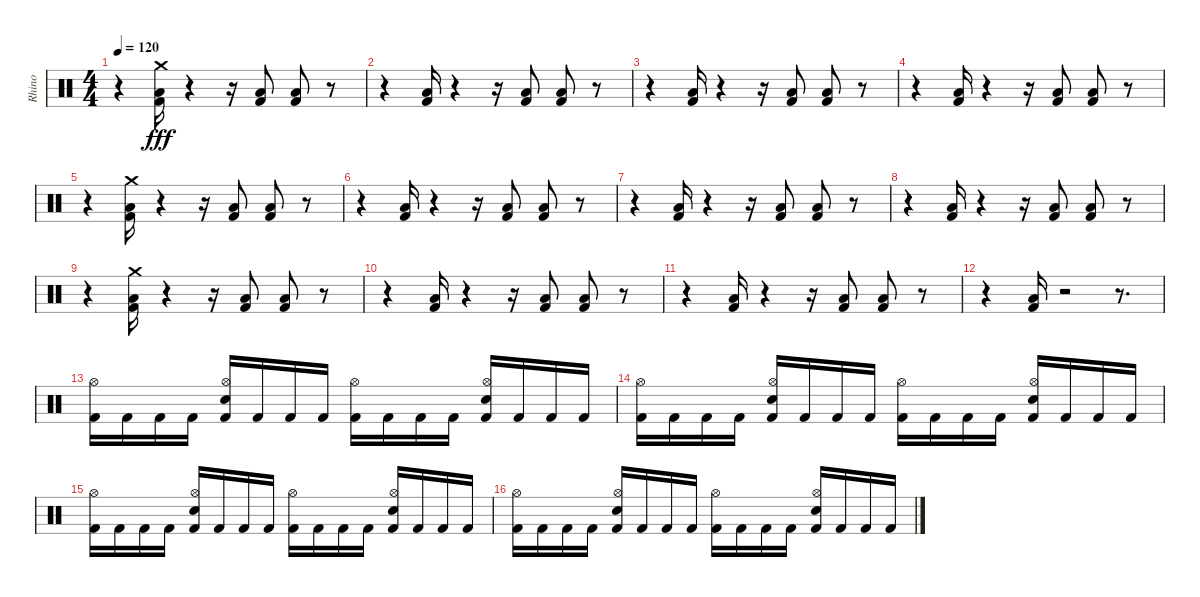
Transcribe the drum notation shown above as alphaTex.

\track ("Rhino" "Rhino") {instrument percussion}
\staff {score}
\articulation defaults
\ts (4 4)
\tempo 120
\clef neutral
\ks c
r.4{dy fff} ("Crash medium (hit)" "Low Floor Tom (hit)" "Kick (hit) 2").16 r.4 r.16 ("Low Floor Tom (hit)" "Kick (hit) 2").8 ("Low Floor Tom (hit)" "Kick (hit) 2").8 r.8 |
r.4 ("Low Floor Tom (hit)" "Kick (hit) 2").16 r.4 r.16 ("Low Floor Tom (hit)" "Kick (hit) 2").8 ("Low Floor Tom (hit)" "Kick (hit) 2").8 r.8 |
r.4 ("Low Floor Tom (hit)" "Kick (hit) 2").16 r.4 r.16 ("Low Floor Tom (hit)" "Kick (hit) 2").8 ("Low Floor Tom (hit)" "Kick (hit) 2").8 r.8 |
r.4 ("Low Floor Tom (hit)" "Kick (hit) 2").16 r.4 r.16 ("Low Floor Tom (hit)" "Kick (hit) 2").8 ("Low Floor Tom (hit)" "Kick (hit) 2").8 r.8 |
r.4 ("Crash medium (hit)" "Low Floor Tom (hit)" "Kick (hit) 2").16 r.4 r.16 ("Low Floor Tom (hit)" "Kick (hit) 2").8 ("Low Floor Tom (hit)" "Kick (hit) 2").8 r.8 |
r.4 ("Low Floor Tom (hit)" "Kick (hit) 2").16 r.4 r.16 ("Low Floor Tom (hit)" "Kick (hit) 2").8 ("Low Floor Tom (hit)" "Kick (hit) 2").8 r.8 |
r.4 ("Low Floor Tom (hit)" "Kick (hit) 2").16 r.4 r.16 ("Low Floor Tom (hit)" "Kick (hit) 2").8 ("Low Floor Tom (hit)" "Kick (hit) 2").8 r.8 |
r.4 ("Low Floor Tom (hit)" "Kick (hit) 2").16 r.4 r.16 ("Low Floor Tom (hit)" "Kick (hit) 2").8 ("Low Floor Tom (hit)" "Kick (hit) 2").8 r.8 |
r.4 ("Crash medium (hit)" "Low Floor Tom (hit)" "Kick (hit) 2").16 r.4 r.16 ("Low Floor Tom (hit)" "Kick (hit) 2").8 ("Low Floor Tom (hit)" "Kick (hit) 2").8 r.8 |
r.4 ("Low Floor Tom (hit)" "Kick (hit) 2").16 r.4 r.16 ("Low Floor Tom (hit)" "Kick (hit) 2").8 ("Low Floor Tom (hit)" "Kick (hit) 2").8 r.8 |
r.4 ("Low Floor Tom (hit)" "Kick (hit) 2").16 r.4 r.16 ("Low Floor Tom (hit)" "Kick (hit) 2").8 ("Low Floor Tom (hit)" "Kick (hit) 2").8 r.8 |
r.4 ("Low Floor Tom (hit)" "Kick (hit) 2").16 r.2 r.8{d} |
("Hi-Hat (open)" "Kick (hit) 2").16 "Kick (hit) 2".16 "Kick (hit) 2".16 "Kick (hit) 2".16 ("Hi-Hat (open)" "Snare (hit) 2" "Kick (hit) 2").16 "Kick (hit) 2".16 "Kick (hit) 2".16 "Kick (hit) 2".16 ("Hi-Hat (open)" "Kick (hit) 2").16 "Kick (hit) 2".16 "Kick (hit) 2".16 "Kick (hit) 2".16 ("Hi-Hat (open)" "Snare (hit) 2" "Kick (hit) 2").16 "Kick (hit) 2".16 "Kick (hit) 2".16 "Kick (hit) 2".16 |
("Hi-Hat (open)" "Kick (hit) 2").16 "Kick (hit) 2".16 "Kick (hit) 2".16 "Kick (hit) 2".16 ("Hi-Hat (open)" "Snare (hit) 2" "Kick (hit) 2").16 "Kick (hit) 2".16 "Kick (hit) 2".16 "Kick (hit) 2".16 ("Hi-Hat (open)" "Kick (hit) 2").16 "Kick (hit) 2".16 "Kick (hit) 2".16 "Kick (hit) 2".16 ("Hi-Hat (open)" "Snare (hit) 2" "Kick (hit) 2").16 "Kick (hit) 2".16 "Kick (hit) 2".16 "Kick (hit) 2".16 |
("Hi-Hat (open)" "Kick (hit) 2").16 "Kick (hit) 2".16 "Kick (hit) 2".16 "Kick (hit) 2".16 ("Hi-Hat (open)" "Snare (hit) 2" "Kick (hit) 2").16 "Kick (hit) 2".16 "Kick (hit) 2".16 "Kick (hit) 2".16 ("Hi-Hat (open)" "Kick (hit) 2").16 "Kick (hit) 2".16 "Kick (hit) 2".16 "Kick (hit) 2".16 ("Hi-Hat (open)" "Snare (hit) 2" "Kick (hit) 2").16 "Kick (hit) 2".16 "Kick (hit) 2".16 "Kick (hit) 2".16 |
("Hi-Hat (open)" "Kick (hit) 2").16 "Kick (hit) 2".16 "Kick (hit) 2".16 "Kick (hit) 2".16 ("Hi-Hat (open)" "Snare (hit) 2" "Kick (hit) 2").16 "Kick (hit) 2".16 "Kick (hit) 2".16 "Kick (hit) 2".16 ("Hi-Hat (open)" "Kick (hit) 2").16 "Kick (hit) 2".16 "Kick (hit) 2".16 "Kick (hit) 2".16 ("Hi-Hat (open)" "Snare (hit) 2" "Kick (hit) 2").16 "Kick (hit) 2".16 "Kick (hit) 2".16 "Kick (hit) 2".16
